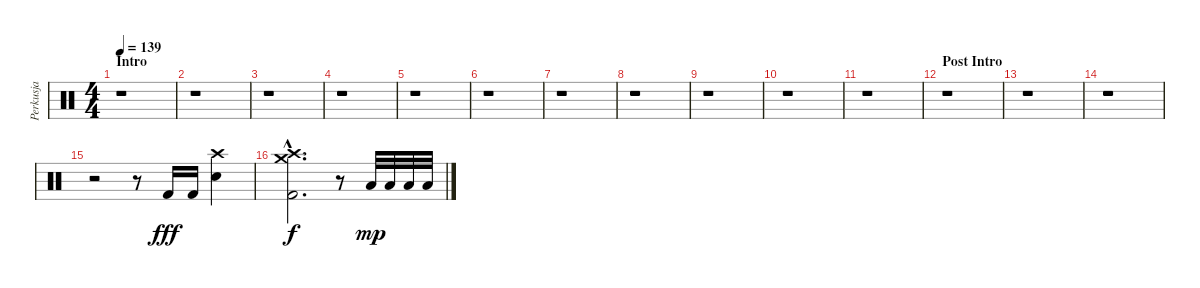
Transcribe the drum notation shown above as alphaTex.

\track ("Perkusja" "Perkusja") {instrument percussion}
\staff {score}
\articulation defaults
\ts (4 4)
\section ("" "Intro")
\tempo 139
\clef neutral
\ks c
r.1{dy fff} |
r.1 |
r.1 |
r.1 |
r.1 |
r.1 |
r.1 |
r.1 |
r.1 |
r.1 |
r.1 |
\section ("" "Post Intro")
r.1 |
r.1 |
r.1 |
r.2 r.8 "Kick (hit) 2".16 "Kick (hit) 2".16 ("Crash high (hit)" "Snare (hit) 2").4 |
("Crash medium (hit)"{hac} "Crash high (hit)"{hac} "Kick (hit) 2"{hac}).2{d dy f} r.8 "Low Floor Tom (hit)".32{dy mp} "Low Floor Tom (hit)".32 "Low Floor Tom (hit)".32 "Low Floor Tom (hit)".32
